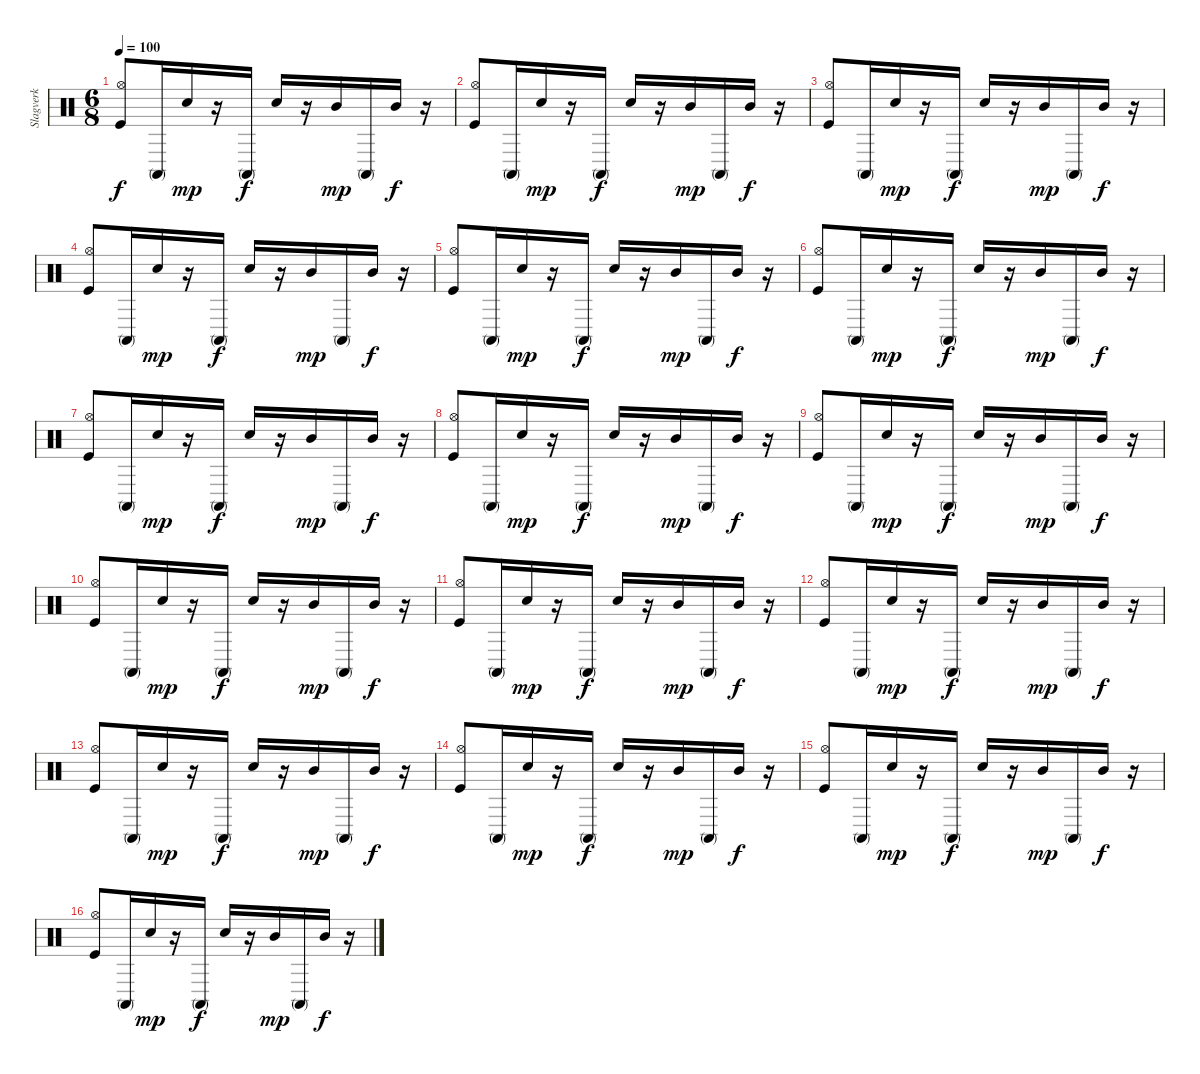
\track ("Slagverk" "Slagverk") {instrument percussion}
\staff {score}
\articulation defaults
\ts (6 8)
\tempo 100
\clef neutral
\ks c
("Hi-Hat (open)" "Kick (hit)").8{dy f} "Conga high (mute)".16 "Snare (hit) 2".16{dy mp} r.16 "Conga high (mute)".16{dy f} "Snare (hit) 2".16 r.16 "Mid Tom (hit)".16{dy mp} "Conga high (mute)".16 "Mid Tom (hit)".16{dy f} r.16 |
("Hi-Hat (open)" "Kick (hit)").8 "Conga high (mute)".16 "Snare (hit) 2".16{dy mp} r.16 "Conga high (mute)".16{dy f} "Snare (hit) 2".16 r.16 "Mid Tom (hit)".16{dy mp} "Conga high (mute)".16 "Mid Tom (hit)".16{dy f} r.16 |
("Hi-Hat (open)" "Kick (hit)").8 "Conga high (mute)".16 "Snare (hit) 2".16{dy mp} r.16 "Conga high (mute)".16{dy f} "Snare (hit) 2".16 r.16 "Mid Tom (hit)".16{dy mp} "Conga high (mute)".16 "Mid Tom (hit)".16{dy f} r.16 |
("Hi-Hat (open)" "Kick (hit)").8 "Conga high (mute)".16 "Snare (hit) 2".16{dy mp} r.16 "Conga high (mute)".16{dy f} "Snare (hit) 2".16 r.16 "Mid Tom (hit)".16{dy mp} "Conga high (mute)".16 "Mid Tom (hit)".16{dy f} r.16 |
("Hi-Hat (open)" "Kick (hit)").8 "Conga high (mute)".16 "Snare (hit) 2".16{dy mp} r.16 "Conga high (mute)".16{dy f} "Snare (hit) 2".16 r.16 "Mid Tom (hit)".16{dy mp} "Conga high (mute)".16 "Mid Tom (hit)".16{dy f} r.16 |
("Hi-Hat (open)" "Kick (hit)").8 "Conga high (mute)".16 "Snare (hit) 2".16{dy mp} r.16 "Conga high (mute)".16{dy f} "Snare (hit) 2".16 r.16 "Mid Tom (hit)".16{dy mp} "Conga high (mute)".16 "Mid Tom (hit)".16{dy f} r.16 |
("Hi-Hat (open)" "Kick (hit)").8 "Conga high (mute)".16 "Snare (hit) 2".16{dy mp} r.16 "Conga high (mute)".16{dy f} "Snare (hit) 2".16 r.16 "Mid Tom (hit)".16{dy mp} "Conga high (mute)".16 "Mid Tom (hit)".16{dy f} r.16 |
("Hi-Hat (open)" "Kick (hit)").8 "Conga high (mute)".16 "Snare (hit) 2".16{dy mp} r.16 "Conga high (mute)".16{dy f} "Snare (hit) 2".16 r.16 "Mid Tom (hit)".16{dy mp} "Conga high (mute)".16 "Mid Tom (hit)".16{dy f} r.16 |
("Hi-Hat (open)" "Kick (hit)").8 "Conga high (mute)".16 "Snare (hit) 2".16{dy mp} r.16 "Conga high (mute)".16{dy f} "Snare (hit) 2".16 r.16 "Mid Tom (hit)".16{dy mp} "Conga high (mute)".16 "Mid Tom (hit)".16{dy f} r.16 |
("Hi-Hat (open)" "Kick (hit)").8 "Conga high (mute)".16 "Snare (hit) 2".16{dy mp} r.16 "Conga high (mute)".16{dy f} "Snare (hit) 2".16 r.16 "Mid Tom (hit)".16{dy mp} "Conga high (mute)".16 "Mid Tom (hit)".16{dy f} r.16 |
("Hi-Hat (open)" "Kick (hit)").8 "Conga high (mute)".16 "Snare (hit) 2".16{dy mp} r.16 "Conga high (mute)".16{dy f} "Snare (hit) 2".16 r.16 "Mid Tom (hit)".16{dy mp} "Conga high (mute)".16 "Mid Tom (hit)".16{dy f} r.16 |
("Hi-Hat (open)" "Kick (hit)").8 "Conga high (mute)".16 "Snare (hit) 2".16{dy mp} r.16 "Conga high (mute)".16{dy f} "Snare (hit) 2".16 r.16 "Mid Tom (hit)".16{dy mp} "Conga high (mute)".16 "Mid Tom (hit)".16{dy f} r.16 |
("Hi-Hat (open)" "Kick (hit)").8 "Conga high (mute)".16 "Snare (hit) 2".16{dy mp} r.16 "Conga high (mute)".16{dy f} "Snare (hit) 2".16 r.16 "Mid Tom (hit)".16{dy mp} "Conga high (mute)".16 "Mid Tom (hit)".16{dy f} r.16 |
("Hi-Hat (open)" "Kick (hit)").8 "Conga high (mute)".16 "Snare (hit) 2".16{dy mp} r.16 "Conga high (mute)".16{dy f} "Snare (hit) 2".16 r.16 "Mid Tom (hit)".16{dy mp} "Conga high (mute)".16 "Mid Tom (hit)".16{dy f} r.16 |
("Hi-Hat (open)" "Kick (hit)").8 "Conga high (mute)".16 "Snare (hit) 2".16{dy mp} r.16 "Conga high (mute)".16{dy f} "Snare (hit) 2".16 r.16 "Mid Tom (hit)".16{dy mp} "Conga high (mute)".16 "Mid Tom (hit)".16{dy f} r.16 |
("Hi-Hat (open)" "Kick (hit)").8 "Conga high (mute)".16 "Snare (hit) 2".16{dy mp} r.16 "Conga high (mute)".16{dy f} "Snare (hit) 2".16 r.16 "Mid Tom (hit)".16{dy mp} "Conga high (mute)".16 "Mid Tom (hit)".16{dy f} r.16
